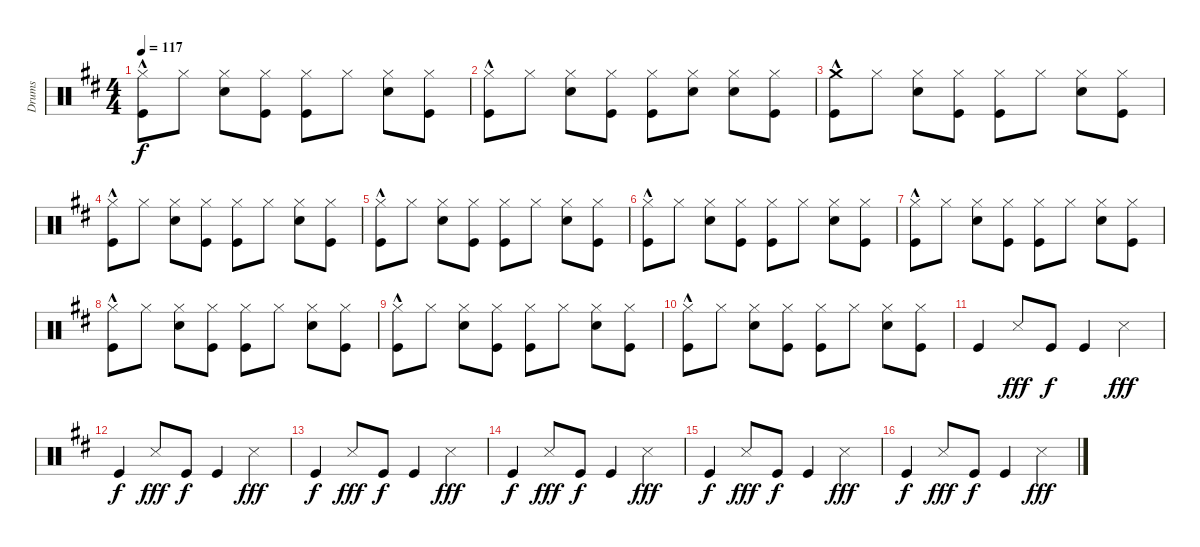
\track ("Drums" "Drums") {instrument percussion}
\staff {score}
\articulation defaults
\ts (4 4)
\tempo 117
\clef neutral
\ks d
("Hi-Hat (closed)"{hac} "Kick (hit)").8{dy f} "Hi-Hat (closed)".8 ("Hi-Hat (closed)" "Snare (hit) 2").8 ("Hi-Hat (closed)" "Kick (hit)").8 ("Hi-Hat (closed)" "Kick (hit)").8 "Hi-Hat (closed)".8 ("Hi-Hat (closed)" "Snare (hit) 2").8 ("Hi-Hat (closed)" "Kick (hit)").8 |
("Hi-Hat (closed)"{hac} "Kick (hit)").8 "Hi-Hat (closed)".8 ("Hi-Hat (closed)" "Snare (hit) 2").8 ("Hi-Hat (closed)" "Kick (hit)").8 ("Hi-Hat (closed)" "Kick (hit)").8 ("Hi-Hat (closed)" "Snare (hit) 2").8 ("Hi-Hat (closed)" "Snare (hit) 2").8 ("Hi-Hat (closed)" "Kick (hit)").8 |
("Crash medium (hit)"{hac} "Kick (hit)").8 "Hi-Hat (closed)".8 ("Hi-Hat (closed)" "Snare (hit) 2").8 ("Hi-Hat (closed)" "Kick (hit)").8 ("Hi-Hat (closed)" "Kick (hit)").8 "Hi-Hat (closed)".8 ("Hi-Hat (closed)" "Snare (hit) 2").8 ("Hi-Hat (closed)" "Kick (hit)").8 |
("Hi-Hat (closed)"{hac} "Kick (hit)").8 "Hi-Hat (closed)".8 ("Hi-Hat (closed)" "Snare (hit) 2").8 ("Hi-Hat (closed)" "Kick (hit)").8 ("Hi-Hat (closed)" "Kick (hit)").8 "Hi-Hat (closed)".8 ("Hi-Hat (closed)" "Snare (hit) 2").8 ("Hi-Hat (closed)" "Kick (hit)").8 |
("Hi-Hat (closed)"{hac} "Kick (hit)").8 "Hi-Hat (closed)".8 ("Hi-Hat (closed)" "Snare (hit) 2").8 ("Hi-Hat (closed)" "Kick (hit)").8 ("Hi-Hat (closed)" "Kick (hit)").8 "Hi-Hat (closed)".8 ("Hi-Hat (closed)" "Snare (hit) 2").8 ("Hi-Hat (closed)" "Kick (hit)").8 |
("Hi-Hat (closed)"{hac} "Kick (hit)").8 "Hi-Hat (closed)".8 ("Hi-Hat (closed)" "Snare (hit) 2").8 ("Hi-Hat (closed)" "Kick (hit)").8 ("Hi-Hat (closed)" "Kick (hit)").8 "Hi-Hat (closed)".8 ("Hi-Hat (closed)" "Snare (hit) 2").8 ("Hi-Hat (closed)" "Kick (hit)").8 |
("Hi-Hat (closed)"{hac} "Kick (hit)").8 "Hi-Hat (closed)".8 ("Hi-Hat (closed)" "Snare (hit) 2").8 ("Hi-Hat (closed)" "Kick (hit)").8 ("Hi-Hat (closed)" "Kick (hit)").8 "Hi-Hat (closed)".8 ("Hi-Hat (closed)" "Snare (hit) 2").8 ("Hi-Hat (closed)" "Kick (hit)").8 |
("Hi-Hat (closed)"{hac} "Kick (hit)").8 "Hi-Hat (closed)".8 ("Hi-Hat (closed)" "Snare (hit) 2").8 ("Hi-Hat (closed)" "Kick (hit)").8 ("Hi-Hat (closed)" "Kick (hit)").8 "Hi-Hat (closed)".8 ("Hi-Hat (closed)" "Snare (hit) 2").8 ("Hi-Hat (closed)" "Kick (hit)").8 |
("Hi-Hat (closed)"{hac} "Kick (hit)").8 "Hi-Hat (closed)".8 ("Hi-Hat (closed)" "Snare (hit) 2").8 ("Hi-Hat (closed)" "Kick (hit)").8 ("Hi-Hat (closed)" "Kick (hit)").8 "Hi-Hat (closed)".8 ("Hi-Hat (closed)" "Snare (hit) 2").8 ("Hi-Hat (closed)" "Kick (hit)").8 |
("Hi-Hat (closed)"{hac} "Kick (hit)").8 "Hi-Hat (closed)".8 ("Hi-Hat (closed)" "Snare (hit) 2").8 ("Hi-Hat (closed)" "Kick (hit)").8 ("Hi-Hat (closed)" "Kick (hit)").8 "Hi-Hat (closed)".8 ("Hi-Hat (closed)" "Snare (hit) 2").8 ("Hi-Hat (closed)" "Kick (hit)").8 |
"Kick (hit)".4 "Snare (side stick) 3".8{dy fff} "Kick (hit)".8{dy f} "Kick (hit)".4 "Snare (side stick) 3".4{dy fff} |
"Kick (hit)".4{dy f} "Snare (side stick) 3".8{dy fff} "Kick (hit)".8{dy f} "Kick (hit)".4 "Snare (side stick) 3".4{dy fff} |
"Kick (hit)".4{dy f} "Snare (side stick) 3".8{dy fff} "Kick (hit)".8{dy f} "Kick (hit)".4 "Snare (side stick) 3".4{dy fff} |
"Kick (hit)".4{dy f} "Snare (side stick) 3".8{dy fff} "Kick (hit)".8{dy f} "Kick (hit)".4 "Snare (side stick) 3".4{dy fff} |
"Kick (hit)".4{dy f} "Snare (side stick) 3".8{dy fff} "Kick (hit)".8{dy f} "Kick (hit)".4 "Snare (side stick) 3".4{dy fff} |
"Kick (hit)".4{dy f} "Snare (side stick) 3".8{dy fff} "Kick (hit)".8{dy f} "Kick (hit)".4 "Snare (side stick) 3".4{dy fff}
